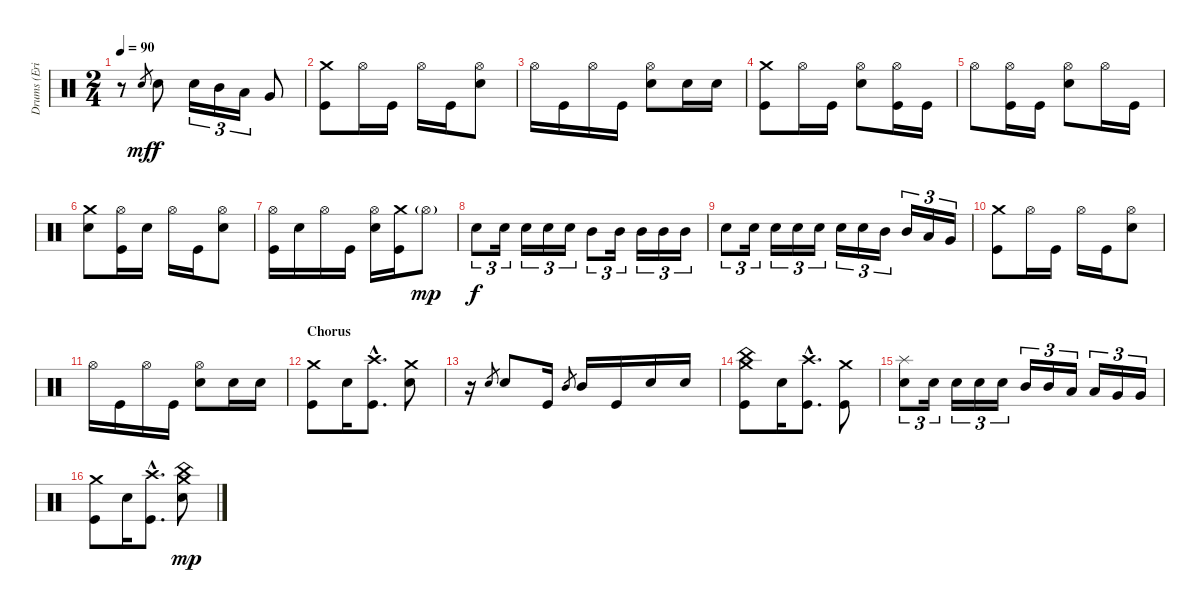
\track ("Drums (Eric Singer)" "Drums (Eri") {instrument percussion}
\staff {score}
\articulation defaults
\ts (2 4)
\tempo 90
\clef neutral
\ks c
r.8{dy f} "Electric Snare (hit)".8{gr dy mf} "Electric Snare (hit)".8{dy f} "Electric Snare (hit)".16{tu (3 2)} "Mid Tom (hit)".16{tu (3 2)} "Low Tom (hit)".16{tu (3 2)} "Very Low Tom (hit)".8 |
("Crash medium (hit)" "Kick (hit)").8 "Hi-Hat (open)".16 "Kick (hit)".16 "Hi-Hat (open)".16 "Kick (hit)".16 ("Hi-Hat (open)" "Electric Snare (hit)").8 |
"Hi-Hat (open)".16 "Kick (hit)".16 "Hi-Hat (open)".16 "Kick (hit)".16 ("Hi-Hat (open)" "Electric Snare (hit)").8 "Electric Snare (hit)".16 "Electric Snare (hit)".16 |
("Crash medium (hit)" "Kick (hit)").8 "Hi-Hat (open)".16 "Kick (hit)".16 ("Hi-Hat (open)" "Electric Snare (hit)").8 ("Hi-Hat (open)" "Kick (hit)").16 "Kick (hit)".16 |
"Hi-Hat (open)".8 ("Hi-Hat (open)" "Kick (hit)").16 "Kick (hit)".16 ("Hi-Hat (open)" "Electric Snare (hit)").8 "Hi-Hat (open)".16 "Kick (hit)".16 |
("Crash medium (hit)" "Electric Snare (hit)").8 ("Hi-Hat (open)" "Kick (hit)").16 "Electric Snare (hit)".16 "Hi-Hat (open)".16 "Kick (hit)".16 ("Hi-Hat (open)" "Electric Snare (hit)").8 |
("Hi-Hat (open)" "Kick (hit)").16 "Electric Snare (hit)".16 "Hi-Hat (open)".16 "Kick (hit)".16 ("Hi-Hat (open)" "Electric Snare (hit)").16 ("Crash medium (hit)" "Kick (hit)").16 "Hi-Hat (open)"{g}.8{dy mp} |
"Electric Snare (hit)".8{tu (3 2) dy f} "Electric Snare (hit)".16{tu (3 2)} "Electric Snare (hit)".16{tu (3 2)} "Electric Snare (hit)".16{tu (3 2)} "Electric Snare (hit)".16{tu (3 2)} "Mid Tom (hit)".8{tu (3 2)} "Mid Tom (hit)".16{tu (3 2)} "Mid Tom (hit)".16{tu (3 2)} "Mid Tom (hit)".16{tu (3 2)} "Mid Tom (hit)".16{tu (3 2)} |
"Electric Snare (hit)".8{tu (3 2)} "Electric Snare (hit)".16{tu (3 2)} "Electric Snare (hit)".16{tu (3 2)} "Electric Snare (hit)".16{tu (3 2)} "Electric Snare (hit)".16{tu (3 2)} "Electric Snare (hit)".16{tu (3 2)} "Electric Snare (hit)".16{tu (3 2)} "Mid Tom (hit)".16{tu (3 2)} "Mid Tom (hit)".16{tu (3 2)} "Low Tom (hit)".16{tu (3 2)} "Very Low Tom (hit)".16{tu (3 2)} |
("Crash medium (hit)" "Kick (hit)").8 "Hi-Hat (open)".16 "Kick (hit)".16 "Hi-Hat (open)".16 "Kick (hit)".16 ("Hi-Hat (open)" "Electric Snare (hit)").8 |
"Hi-Hat (open)".16 "Kick (hit)".16 "Hi-Hat (open)".16 "Kick (hit)".16 ("Hi-Hat (open)" "Electric Snare (hit)").8 "Electric Snare (hit)".16 "Electric Snare (hit)".16 |
\section ("" "Chorus")
("Crash medium (hit)" "Kick (hit)").8 "Electric Snare (hit)".16 ("Crash high (hit)"{hac} "Kick (hit)"{hac}).8{d} ("Crash medium (hit)" "Electric Snare (hit)").8 |
r.16 "Electric Snare (hit)".8{gr} "Electric Snare (hit)".8 "Kick (hit)".16 "Mid Tom (hit)".8{gr} "Mid Tom (hit)".16 "Kick (hit)".16 "Electric Snare (hit)".16 "Electric Snare (hit)".16 |
("Crash medium (hit)" "China (hit)" "Kick (hit)").8 "Electric Snare (hit)".16 ("Crash high (hit)"{hac} "Kick (hit)"{hac}).8{d} ("Crash medium (hit)" "Kick (hit)").8 |
("Splash (hit)" "Electric Snare (hit)").8{tu (3 2)} "Electric Snare (hit)".16{tu (3 2)} "Electric Snare (hit)".16{tu (3 2)} "Electric Snare (hit)".16{tu (3 2)} "Electric Snare (hit)".16{tu (3 2)} "Mid Tom (hit)".16{tu (3 2)} "Mid Tom (hit)".16{tu (3 2)} "Low Tom (hit)".16{tu (3 2)} "Low Tom (hit)".16{tu (3 2)} "Very Low Tom (hit)".16{tu (3 2)} "Very Low Tom (hit)".16{tu (3 2)} |
("Crash medium (hit)" "Kick (hit)").8 "Electric Snare (hit)".16 ("Crash high (hit)"{hac} "Kick (hit)"{hac}).8{d} ("China (hit)" "Crash medium (hit)" "Electric Snare (hit)").8{dy mp}
